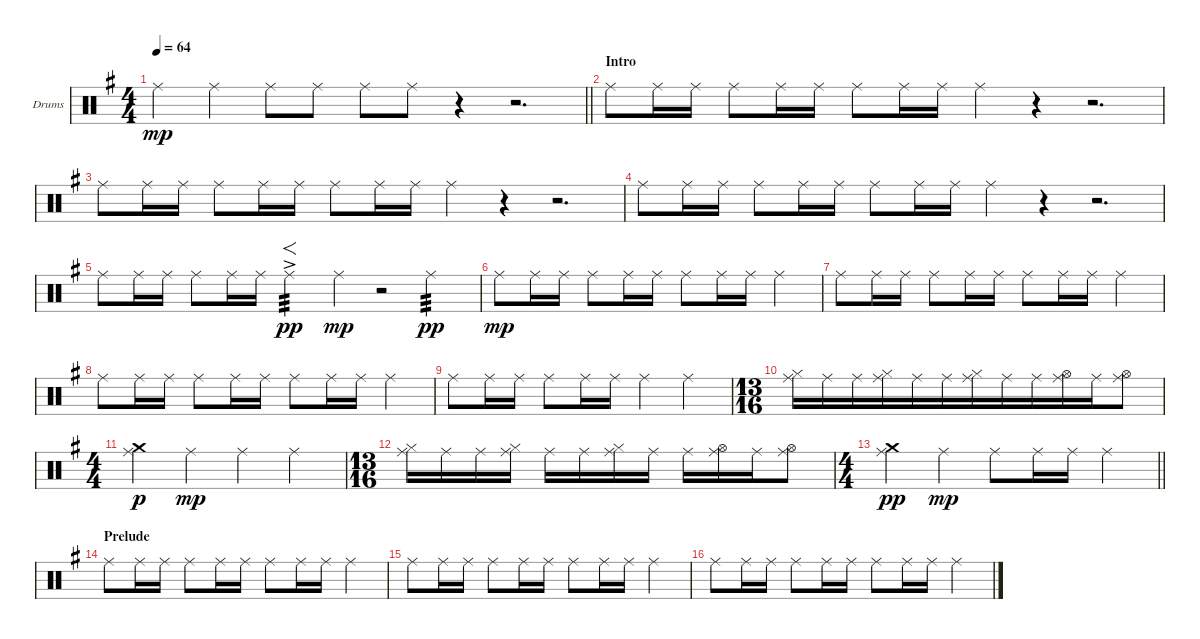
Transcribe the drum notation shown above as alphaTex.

\bracketExtendMode groupsimilarinstruments
\firstSystemTrackNameOrientation horizontal
\otherSystemsTrackNameOrientation horizontal
\track ("Барабаны" "Drums") {instrument percussion}
\staff {score}
\articulation defaults
\ts (4 4)
\beaming (8 2 2 2 2)
\tempo 64
\clef neutral
\barLineRight lightlight
\ks eminor "Ride (middle)".4{dy mp} "Ride (middle)".4 "Ride (middle)".8 "Ride (middle)".8 "Ride (middle)".8 "Ride (middle)".8
r.4 r.2{d} |
\section ("" "Intro")
"Ride (middle)".8 "Ride (middle)".16 "Ride (middle)".16 "Ride (middle)".8 "Ride (middle)".16 "Ride (middle)".16 "Ride (middle)".8 "Ride (middle)".16 "Ride (middle)".16 "Ride (middle)".4 r.4 r.2{d} |
"Ride (middle)".8 "Ride (middle)".16 "Ride (middle)".16 "Ride (middle)".8 "Ride (middle)".16 "Ride (middle)".16 "Ride (middle)".8 "Ride (middle)".16 "Ride (middle)".16 "Ride (middle)".4 r.4 r.2{d} |
"Ride (middle)".8 "Ride (middle)".16 "Ride (middle)".16 "Ride (middle)".8 "Ride (middle)".16 "Ride (middle)".16 "Ride (middle)".8 "Ride (middle)".16 "Ride (middle)".16 "Ride (middle)".4 r.4 r.2{d} |
"Ride (middle)".8 "Ride (middle)".16 "Ride (middle)".16 "Ride (middle)".8 "Ride (middle)".16 "Ride (middle)".16 "Ride (middle)"{ac}.2{f tp 3 dy pp} "Ride (middle)".4{dy mp} r.2 "Ride (middle)".2{tp 3 dy pp} |
"Ride (middle)".8{dy mp} "Ride (middle)".16 "Ride (middle)".16 "Ride (middle)".8 "Ride (middle)".16 "Ride (middle)".16 "Ride (middle)".8 "Ride (middle)".16 "Ride (middle)".16 "Ride (middle)".4 |
"Ride (middle)".8 "Ride (middle)".16 "Ride (middle)".16 "Ride (middle)".8 "Ride (middle)".16 "Ride (middle)".16 "Ride (middle)".8 "Ride (middle)".16 "Ride (middle)".16 "Ride (middle)".4 |
"Ride (middle)".8 "Ride (middle)".16 "Ride (middle)".16 "Ride (middle)".8 "Ride (middle)".16 "Ride (middle)".16 "Ride (middle)".8 "Ride (middle)".16 "Ride (middle)".16 "Ride (middle)".4 |
"Ride (middle)".8 "Ride (middle)".16 "Ride (middle)".16 "Ride (middle)".8 "Ride (middle)".16 "Ride (middle)".16 "Ride (middle)".4 "Ride (middle)".4 |
\ts (13 16)
\beaming (8 6)
("Hi-Hat (closed)" "Ride (middle)").16 "Ride (middle)".16 "Ride (middle)".16 ("Hi-Hat (closed)" "Ride (middle)").16 "Ride (middle)".16 "Ride (middle)".16 ("Hi-Hat (closed)" "Ride (middle)").16 "Ride (middle)".16 "Ride (middle)".16 ("Ride (middle)" "Hi-Hat (open)").16 "Ride (middle)".16 ("Ride (middle)" "Hi-Hat (open)").8 |
\ts (4 4)
\beaming (8 2 2 2 2)
("Crash medium (hit)" "Ride (middle)").4{dy p} "Ride (middle)".4{dy mp} "Ride (middle)".4 "Ride (middle)".4 |
\ts (13 16)
\beaming (8 2 2 2 2)
("Hi-Hat (closed)" "Ride (middle)").16 "Ride (middle)".16 "Ride (middle)".16 ("Hi-Hat (closed)" "Ride (middle)").16 "Ride (middle)".16 "Ride (middle)".16 ("Hi-Hat (closed)" "Ride (middle)").16 "Ride (middle)".16 "Ride (middle)".16 ("Ride (middle)" "Hi-Hat (open)").16 "Ride (middle)".16 ("Ride (middle)" "Hi-Hat (open)").8 |
\ts (4 4)
\beaming (8 2 2 2 2)
\barLineRight lightlight
("Crash medium (hit)" "Ride (middle)").4{dy pp} "Ride (middle)".4{dy mp} "Ride (middle)".8 "Ride (middle)".16 "Ride (middle)".16 "Ride (middle)".4 |
\section ("" "Prelude")
"Ride (middle)".8 "Ride (middle)".16 "Ride (middle)".16 "Ride (middle)".8 "Ride (middle)".16 "Ride (middle)".16 "Ride (middle)".8 "Ride (middle)".16 "Ride (middle)".16 "Ride (middle)".4 |
"Ride (middle)".8 "Ride (middle)".16 "Ride (middle)".16 "Ride (middle)".8 "Ride (middle)".16 "Ride (middle)".16 "Ride (middle)".8 "Ride (middle)".16 "Ride (middle)".16 "Ride (middle)".4 |
"Ride (middle)".8 "Ride (middle)".16 "Ride (middle)".16 "Ride (middle)".8 "Ride (middle)".16 "Ride (middle)".16 "Ride (middle)".8 "Ride (middle)".16 "Ride (middle)".16 "Ride (middle)".4
